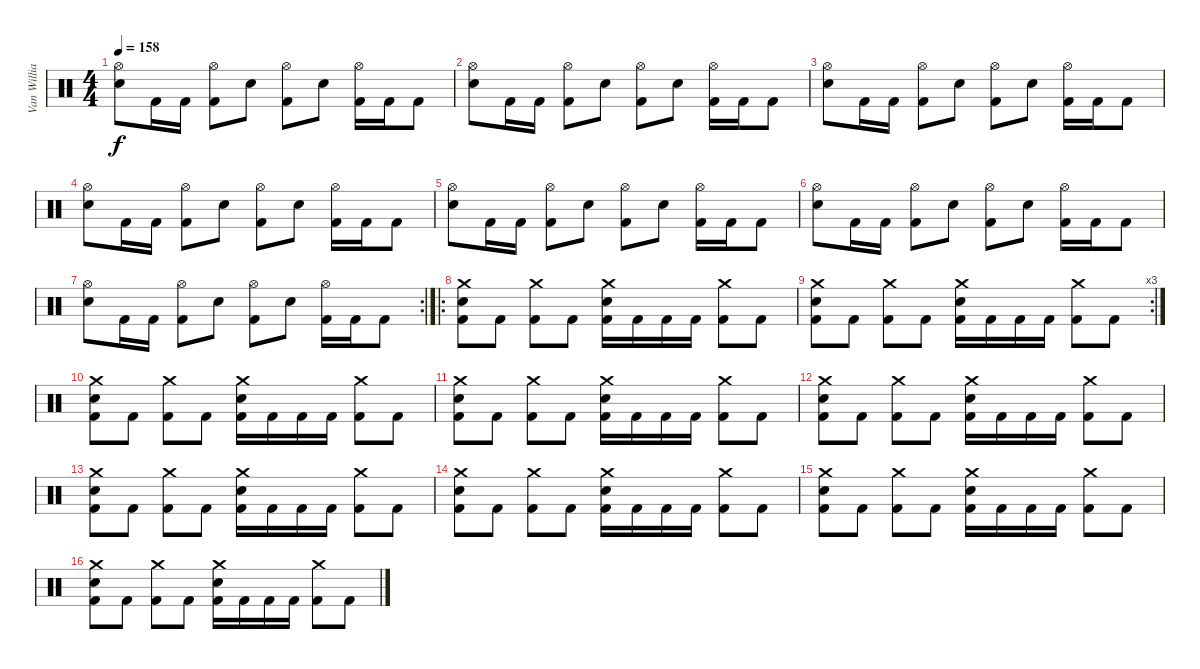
\track ("Van Williams" "Van Willia") {instrument percussion}
\staff {score}
\articulation defaults
\ts (4 4)
\tempo 158
\clef neutral
\ks c
("Hi-Hat (open)" "Electric Snare (hit)").8{dy f} "Kick (hit) 2".16 "Kick (hit) 2".16 ("Hi-Hat (open)" "Kick (hit) 2").8 "Electric Snare (hit)".8 ("Hi-Hat (open)" "Kick (hit) 2").8 "Electric Snare (hit)".8 ("Hi-Hat (open)" "Kick (hit) 2").16 "Kick (hit) 2".16 "Kick (hit) 2".8 |
("Hi-Hat (open)" "Electric Snare (hit)").8 "Kick (hit) 2".16 "Kick (hit) 2".16 ("Hi-Hat (open)" "Kick (hit) 2").8 "Electric Snare (hit)".8 ("Hi-Hat (open)" "Kick (hit) 2").8 "Electric Snare (hit)".8 ("Hi-Hat (open)" "Kick (hit) 2").16 "Kick (hit) 2".16 "Kick (hit) 2".8 |
("Hi-Hat (open)" "Electric Snare (hit)").8 "Kick (hit) 2".16 "Kick (hit) 2".16 ("Hi-Hat (open)" "Kick (hit) 2").8 "Electric Snare (hit)".8 ("Hi-Hat (open)" "Kick (hit) 2").8 "Electric Snare (hit)".8 ("Hi-Hat (open)" "Kick (hit) 2").16 "Kick (hit) 2".16 "Kick (hit) 2".8 |
("Hi-Hat (open)" "Electric Snare (hit)").8 "Kick (hit) 2".16 "Kick (hit) 2".16 ("Hi-Hat (open)" "Kick (hit) 2").8 "Electric Snare (hit)".8 ("Hi-Hat (open)" "Kick (hit) 2").8 "Electric Snare (hit)".8 ("Hi-Hat (open)" "Kick (hit) 2").16 "Kick (hit) 2".16 "Kick (hit) 2".8 |
("Hi-Hat (open)" "Electric Snare (hit)").8 "Kick (hit) 2".16 "Kick (hit) 2".16 ("Hi-Hat (open)" "Kick (hit) 2").8 "Electric Snare (hit)".8 ("Hi-Hat (open)" "Kick (hit) 2").8 "Electric Snare (hit)".8 ("Hi-Hat (open)" "Kick (hit) 2").16 "Kick (hit) 2".16 "Kick (hit) 2".8 |
("Hi-Hat (open)" "Electric Snare (hit)").8 "Kick (hit) 2".16 "Kick (hit) 2".16 ("Hi-Hat (open)" "Kick (hit) 2").8 "Electric Snare (hit)".8 ("Hi-Hat (open)" "Kick (hit) 2").8 "Electric Snare (hit)".8 ("Hi-Hat (open)" "Kick (hit) 2").16 "Kick (hit) 2".16 "Kick (hit) 2".8 |
\rc 2
("Hi-Hat (open)" "Electric Snare (hit)").8 "Kick (hit) 2".16 "Kick (hit) 2".16 ("Hi-Hat (open)" "Kick (hit) 2").8 "Electric Snare (hit)".8 ("Hi-Hat (open)" "Kick (hit) 2").8 "Electric Snare (hit)".8 ("Hi-Hat (open)" "Kick (hit) 2").16 "Kick (hit) 2".16 "Kick (hit) 2".8 |
\ro
("Crash medium (hit)" "Electric Snare (hit)" "Kick (hit) 2").8 "Kick (hit) 2".8 ("Crash medium (hit)" "Kick (hit) 2").8 "Kick (hit) 2".8 ("Crash medium (hit)" "Electric Snare (hit)" "Kick (hit) 2").16 "Kick (hit) 2".16 "Kick (hit) 2".16 "Kick (hit) 2".16 ("Crash medium (hit)" "Kick (hit) 2").8 "Kick (hit) 2".8 |
\rc 3
("Crash medium (hit)" "Electric Snare (hit)" "Kick (hit) 2").8 "Kick (hit) 2".8 ("Crash medium (hit)" "Kick (hit) 2").8 "Kick (hit) 2".8 ("Crash medium (hit)" "Electric Snare (hit)" "Kick (hit) 2").16 "Kick (hit) 2".16 "Kick (hit) 2".16 "Kick (hit) 2".16 ("Crash medium (hit)" "Kick (hit) 2").8 "Kick (hit) 2".8 |
("Crash medium (hit)" "Electric Snare (hit)" "Kick (hit) 2").8 "Kick (hit) 2".8 ("Crash medium (hit)" "Kick (hit) 2").8 "Kick (hit) 2".8 ("Crash medium (hit)" "Electric Snare (hit)" "Kick (hit) 2").16 "Kick (hit) 2".16 "Kick (hit) 2".16 "Kick (hit) 2".16 ("Crash medium (hit)" "Kick (hit) 2").8 "Kick (hit) 2".8 |
("Crash medium (hit)" "Electric Snare (hit)" "Kick (hit) 2").8 "Kick (hit) 2".8 ("Crash medium (hit)" "Kick (hit) 2").8 "Kick (hit) 2".8 ("Crash medium (hit)" "Electric Snare (hit)" "Kick (hit) 2").16 "Kick (hit) 2".16 "Kick (hit) 2".16 "Kick (hit) 2".16 ("Crash medium (hit)" "Kick (hit) 2").8 "Kick (hit) 2".8 |
("Crash medium (hit)" "Electric Snare (hit)" "Kick (hit) 2").8 "Kick (hit) 2".8 ("Crash medium (hit)" "Kick (hit) 2").8 "Kick (hit) 2".8 ("Crash medium (hit)" "Electric Snare (hit)" "Kick (hit) 2").16 "Kick (hit) 2".16 "Kick (hit) 2".16 "Kick (hit) 2".16 ("Crash medium (hit)" "Kick (hit) 2").8 "Kick (hit) 2".8 |
("Crash medium (hit)" "Electric Snare (hit)" "Kick (hit) 2").8 "Kick (hit) 2".8 ("Crash medium (hit)" "Kick (hit) 2").8 "Kick (hit) 2".8 ("Crash medium (hit)" "Electric Snare (hit)" "Kick (hit) 2").16 "Kick (hit) 2".16 "Kick (hit) 2".16 "Kick (hit) 2".16 ("Crash medium (hit)" "Kick (hit) 2").8 "Kick (hit) 2".8 |
("Crash medium (hit)" "Electric Snare (hit)" "Kick (hit) 2").8 "Kick (hit) 2".8 ("Crash medium (hit)" "Kick (hit) 2").8 "Kick (hit) 2".8 ("Crash medium (hit)" "Electric Snare (hit)" "Kick (hit) 2").16 "Kick (hit) 2".16 "Kick (hit) 2".16 "Kick (hit) 2".16 ("Crash medium (hit)" "Kick (hit) 2").8 "Kick (hit) 2".8 |
("Crash medium (hit)" "Electric Snare (hit)" "Kick (hit) 2").8 "Kick (hit) 2".8 ("Crash medium (hit)" "Kick (hit) 2").8 "Kick (hit) 2".8 ("Crash medium (hit)" "Electric Snare (hit)" "Kick (hit) 2").16 "Kick (hit) 2".16 "Kick (hit) 2".16 "Kick (hit) 2".16 ("Crash medium (hit)" "Kick (hit) 2").8 "Kick (hit) 2".8 |
("Crash medium (hit)" "Electric Snare (hit)" "Kick (hit) 2").8 "Kick (hit) 2".8 ("Crash medium (hit)" "Kick (hit) 2").8 "Kick (hit) 2".8 ("Crash medium (hit)" "Electric Snare (hit)" "Kick (hit) 2").16 "Kick (hit) 2".16 "Kick (hit) 2".16 "Kick (hit) 2".16 ("Crash medium (hit)" "Kick (hit) 2").8 "Kick (hit) 2".8
